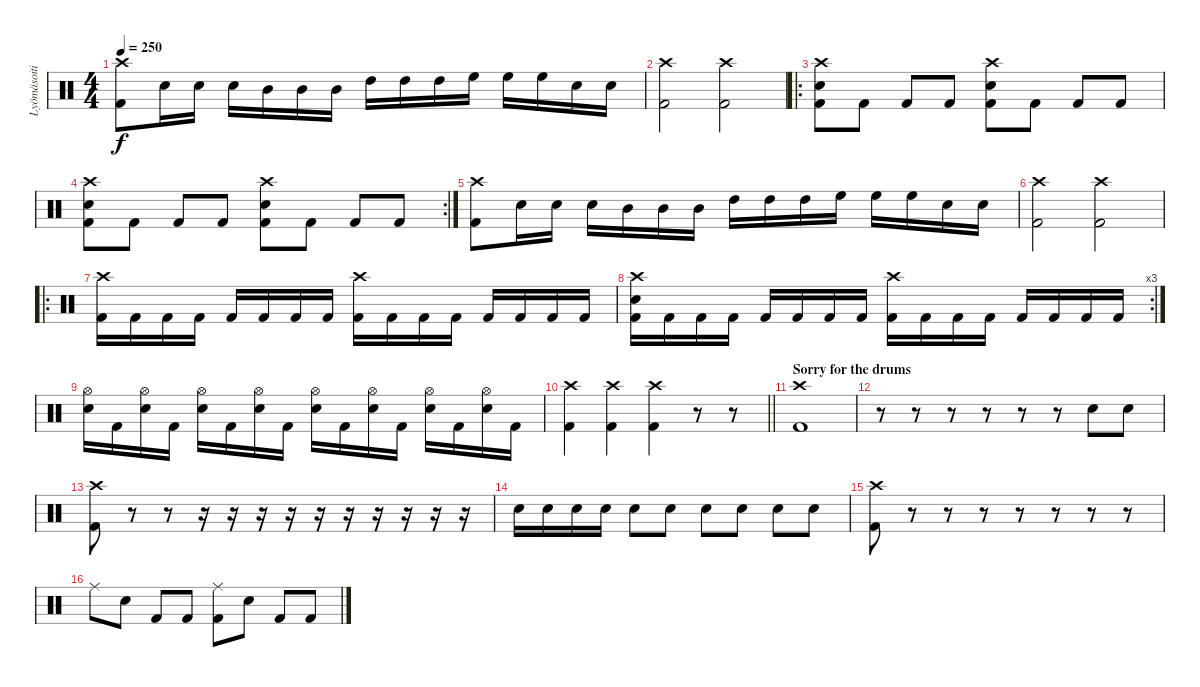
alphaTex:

\track ("Lyömäsoitin" "Lyömäsoiti") {instrument percussion}
\staff {score}
\articulation defaults
\ts (4 4)
\tempo 250
\clef neutral
\ks c
("Crash high (hit)" "Kick (hit) 2").8{dy f} "Electric Snare (hit)".16 "Electric Snare (hit)".16 "Electric Snare (hit)".16 "Mid Tom (hit)".16 "Mid Tom (hit)".16 "Mid Tom (hit)".16 "High Tom (hit)".16 "High Tom (hit)".16 "High Tom (hit)".16 "High Floor Tom (hit)".16 "High Floor Tom (hit)".16 "High Floor Tom (hit)".16 "Electric Snare (hit)".16 "Snare (hit)".16 |
("Crash high (hit)" "Kick (hit) 2").2 ("Crash high (hit)" "Kick (hit) 2").2 |
\ro
("Crash high (hit)" "Electric Snare (hit)" "Kick (hit) 2").8 "Kick (hit) 2".8 "Kick (hit) 2".8 "Kick (hit) 2".8 ("Crash high (hit)" "Electric Snare (hit)" "Kick (hit) 2").8 "Kick (hit) 2".8 "Kick (hit) 2".8 "Kick (hit) 2".8 |
\rc 2
("Crash high (hit)" "Electric Snare (hit)" "Kick (hit) 2").8 "Kick (hit) 2".8 "Kick (hit) 2".8 "Kick (hit) 2".8 ("Crash high (hit)" "Electric Snare (hit)" "Kick (hit) 2").8 "Kick (hit) 2".8 "Kick (hit) 2".8 "Kick (hit) 2".8 |
("Crash high (hit)" "Kick (hit) 2").8 "Electric Snare (hit)".16 "Electric Snare (hit)".16 "Electric Snare (hit)".16 "Mid Tom (hit)".16 "Mid Tom (hit)".16 "Mid Tom (hit)".16 "High Tom (hit)".16 "High Tom (hit)".16 "High Tom (hit)".16 "High Floor Tom (hit)".16 "High Floor Tom (hit)".16 "High Floor Tom (hit)".16 "Electric Snare (hit)".16 "Snare (hit)".16 |
("Crash high (hit)" "Kick (hit) 2").2 ("Crash high (hit)" "Kick (hit) 2").2 |
\ro
("Crash high (hit)" "Kick (hit) 2").16 "Kick (hit) 2".16 "Kick (hit) 2".16 "Kick (hit) 2".16 "Kick (hit) 2".16 "Kick (hit) 2".16 "Kick (hit) 2".16 "Kick (hit) 2".16 ("Crash high (hit)" "Kick (hit) 2").16 "Kick (hit) 2".16 "Kick (hit) 2".16 "Kick (hit) 2".16 "Kick (hit) 2".16 "Kick (hit) 2".16 "Kick (hit) 2".16 "Kick (hit) 2".16 |
\rc 3
("Crash high (hit)" "Electric Snare (hit)" "Kick (hit) 2").16 "Kick (hit) 2".16 "Kick (hit) 2".16 "Kick (hit) 2".16 "Kick (hit) 2".16 "Kick (hit) 2".16 "Kick (hit) 2".16 "Kick (hit) 2".16 ("Crash high (hit)" "Kick (hit) 2").16 "Kick (hit) 2".16 "Kick (hit) 2".16 "Kick (hit) 2".16 "Kick (hit) 2".16 "Kick (hit) 2".16 "Kick (hit) 2".16 "Kick (hit) 2".16 |
("Hi-Hat (open)" "Electric Snare (hit)").16 "Kick (hit) 2".16 ("Hi-Hat (open)" "Electric Snare (hit)").16 "Kick (hit) 2".16 ("Hi-Hat (open)" "Electric Snare (hit)").16 "Kick (hit) 2".16 ("Hi-Hat (open)" "Electric Snare (hit)").16 "Kick (hit) 2".16 ("Hi-Hat (open)" "Electric Snare (hit)").16 "Kick (hit) 2".16 ("Hi-Hat (open)" "Electric Snare (hit)").16 "Kick (hit) 2".16 ("Hi-Hat (open)" "Electric Snare (hit)").16 "Kick (hit) 2".16 ("Hi-Hat (open)" "Electric Snare (hit)").16 "Kick (hit) 2".16 |
\barLineRight lightlight
("Crash high (hit)" "Kick (hit) 2").4 ("Crash high (hit)" "Kick (hit) 2").4 ("Crash high (hit)" "Kick (hit) 2").4 r.8 r.8 |
\section ("" "Sorry for the drums")
("Crash high (hit)" "Kick (hit) 2").1 |
r.8 r.8 r.8 r.8 r.8 r.8 "Electric Snare (hit)".8 "Electric Snare (hit)".8 |
("Crash high (hit)" "Kick (hit) 2").8 r.8 r.8 r.16 r.16 r.16 r.16 r.16 r.16 r.16 r.16 r.16 r.16 |
"Electric Snare (hit)".16 "Electric Snare (hit)".16 "Electric Snare (hit)".16 "Electric Snare (hit)".16 "Electric Snare (hit)".8 "Electric Snare (hit)".8 "Electric Snare (hit)".8 "Electric Snare (hit)".8 "Electric Snare (hit)".8 "Electric Snare (hit)".8 |
("Kick (hit) 2" "Crash high (hit)").8 r.8 r.8 r.8 r.8 r.8 r.8 r.8 |
"Ride (middle)".8 "Electric Snare (hit)".8 "Kick (hit) 2".8 "Kick (hit) 2".8 ("Ride (middle)" "Kick (hit) 2").8 "Electric Snare (hit)".8 "Kick (hit) 2".8 "Kick (hit) 2".8
